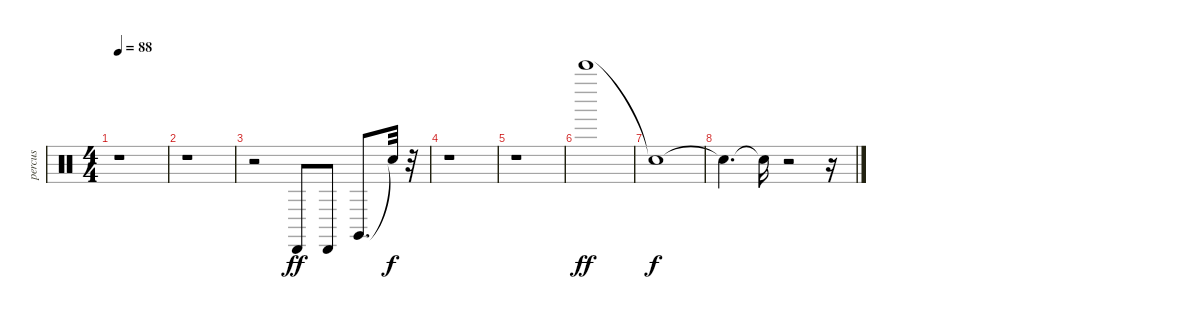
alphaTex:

\track ("percus" "percus") {instrument percussion}
\staff {score}
\articulation defaults
\ts (4 4)
\tempo 88
\clef neutral
\ks c
r.1{dy f} |
r.1 |
r.2 "Cabasa (hit)".8{dy ff} "Cabasa (hit)".8 "Claves (hit)".8{d} "Snare (hit)"{t}.32{dy f} r.32 |
r.1 |
r.1 |
"Bell Tree (hit)".1{dy ff} |
"Snare (hit)"{t}.1{dy f} |
"Snare (hit)"{t}.4{d} "Snare (hit)"{t}.16 r.2 r.16
